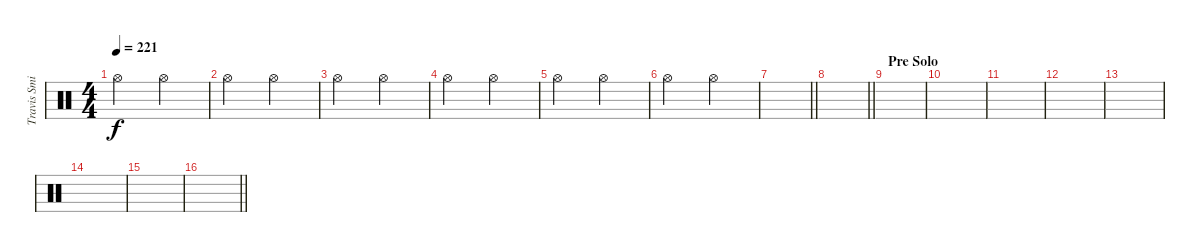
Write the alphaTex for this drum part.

\track ("Travis Smith" "Travis Smi") {instrument percussion}
\staff {score}
\articulation defaults
\ts (4 4)
\tempo 221
\clef neutral
\ks c "Hi-Hat (open)".2{dy f} "Hi-Hat (open)".2
|
"Hi-Hat (open)".2 "Hi-Hat (open)".2 |
"Hi-Hat (open)".2 "Hi-Hat (open)".2 |
"Hi-Hat (open)".2 "Hi-Hat (open)".2 |
"Hi-Hat (open)".2 "Hi-Hat (open)".2 |
"Hi-Hat (open)".2 "Hi-Hat (open)".2 |
\barLineRight lightlight
|
\barLineRight lightlight
|
\section ("" "Pre Solo")
|
|
|
|
|
|
|
\barLineRight lightlight
